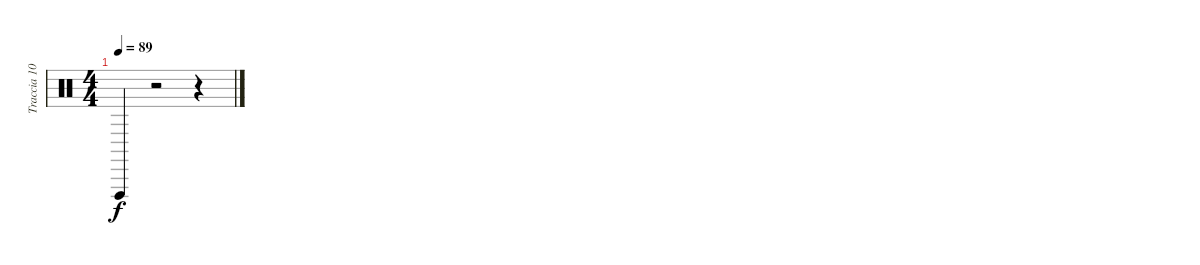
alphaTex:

\track ("Traccia 10" "Traccia 10") {instrument percussion}
\staff {score}
\articulation defaults
\ts (4 4)
\tempo 89
\clef neutral
\ks c "Vibraslap (hit)".4{dy f}
r.2 r.4
